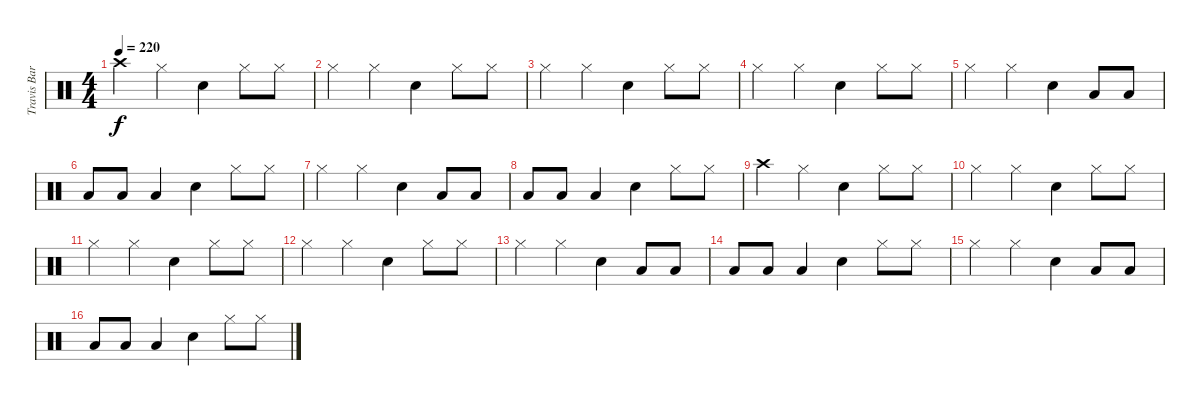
\track ("Travis Barker" "Travis Bar") {instrument percussion}
\staff {score}
\articulation defaults
\ts (4 4)
\tempo 220
\clef neutral
\ks c "Crash high (hit)".4{dy f} "Hi-Hat (closed)".4 "Snare (hit) 2".4 "Hi-Hat (closed)".8 "Hi-Hat (closed)".8
|
"Hi-Hat (closed)".4 "Hi-Hat (closed)".4 "Snare (hit) 2".4 "Hi-Hat (closed)".8 "Hi-Hat (closed)".8 |
"Hi-Hat (closed)".4 "Hi-Hat (closed)".4 "Snare (hit) 2".4 "Hi-Hat (closed)".8 "Hi-Hat (closed)".8 |
"Hi-Hat (closed)".4 "Hi-Hat (closed)".4 "Snare (hit) 2".4 "Hi-Hat (closed)".8 "Hi-Hat (closed)".8 |
"Hi-Hat (closed)".4 "Hi-Hat (closed)".4 "Snare (hit) 2".4 "Low Floor Tom (hit)".8 "Low Floor Tom (hit)".8 |
"Low Floor Tom (hit)".8 "Low Floor Tom (hit)".8 "Low Floor Tom (hit)".4 "Snare (hit) 2".4 "Hi-Hat (closed)".8 "Hi-Hat (closed)".8 |
"Hi-Hat (closed)".4 "Hi-Hat (closed)".4 "Snare (hit) 2".4 "Low Floor Tom (hit)".8 "Low Floor Tom (hit)".8 |
"Low Floor Tom (hit)".8 "Low Floor Tom (hit)".8 "Low Floor Tom (hit)".4 "Snare (hit) 2".4 "Hi-Hat (closed)".8 "Hi-Hat (closed)".8 |
"Crash high (hit)".4 "Hi-Hat (closed)".4 "Snare (hit) 2".4 "Hi-Hat (closed)".8 "Hi-Hat (closed)".8 |
"Hi-Hat (closed)".4 "Hi-Hat (closed)".4 "Snare (hit) 2".4 "Hi-Hat (closed)".8 "Hi-Hat (closed)".8 |
"Hi-Hat (closed)".4 "Hi-Hat (closed)".4 "Snare (hit) 2".4 "Hi-Hat (closed)".8 "Hi-Hat (closed)".8 |
"Hi-Hat (closed)".4 "Hi-Hat (closed)".4 "Snare (hit) 2".4 "Hi-Hat (closed)".8 "Hi-Hat (closed)".8 |
"Hi-Hat (closed)".4 "Hi-Hat (closed)".4 "Snare (hit) 2".4 "Low Floor Tom (hit)".8 "Low Floor Tom (hit)".8 |
"Low Floor Tom (hit)".8 "Low Floor Tom (hit)".8 "Low Floor Tom (hit)".4 "Snare (hit) 2".4 "Hi-Hat (closed)".8 "Hi-Hat (closed)".8 |
"Hi-Hat (closed)".4 "Hi-Hat (closed)".4 "Snare (hit) 2".4 "Low Floor Tom (hit)".8 "Low Floor Tom (hit)".8 |
"Low Floor Tom (hit)".8 "Low Floor Tom (hit)".8 "Low Floor Tom (hit)".4 "Snare (hit) 2".4 "Hi-Hat (closed)".8 "Hi-Hat (closed)".8
